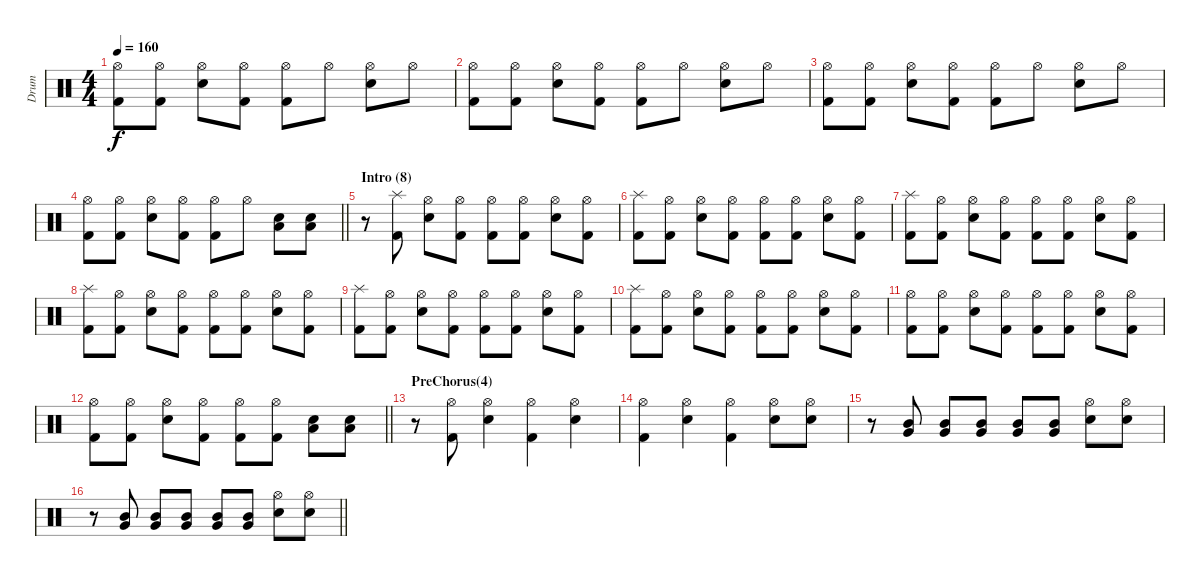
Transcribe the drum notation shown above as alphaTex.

\track ("Drum" "Drum") {instrument percussion}
\staff {score}
\articulation defaults
\ts (4 4)
\tempo 160
\clef neutral
\ks c
("Hi-Hat (open)" "Kick (hit) 2").8{dy f} ("Hi-Hat (open)" "Kick (hit) 2").8 ("Hi-Hat (open)" "Snare (hit) 2").8 ("Hi-Hat (open)" "Kick (hit) 2").8 ("Hi-Hat (open)" "Kick (hit) 2").8 "Hi-Hat (open)".8 ("Hi-Hat (open)" "Snare (hit) 2").8 "Hi-Hat (open)".8 |
("Hi-Hat (open)" "Kick (hit) 2").8 ("Hi-Hat (open)" "Kick (hit) 2").8 ("Hi-Hat (open)" "Snare (hit) 2").8 ("Hi-Hat (open)" "Kick (hit) 2").8 ("Hi-Hat (open)" "Kick (hit) 2").8 "Hi-Hat (open)".8 ("Hi-Hat (open)" "Snare (hit) 2").8 "Hi-Hat (open)".8 |
("Hi-Hat (open)" "Kick (hit) 2").8 ("Hi-Hat (open)" "Kick (hit) 2").8 ("Hi-Hat (open)" "Snare (hit) 2").8 ("Hi-Hat (open)" "Kick (hit) 2").8 ("Hi-Hat (open)" "Kick (hit) 2").8 "Hi-Hat (open)".8 ("Hi-Hat (open)" "Snare (hit) 2").8 "Hi-Hat (open)".8 |
\barLineRight lightlight
("Hi-Hat (open)" "Kick (hit) 2").8 ("Hi-Hat (open)" "Kick (hit) 2").8 ("Hi-Hat (open)" "Snare (hit) 2").8 ("Hi-Hat (open)" "Kick (hit) 2").8 ("Hi-Hat (open)" "Kick (hit) 2").8 "Hi-Hat (open)".8 ("Low Floor Tom (hit)" "Snare (hit) 2").8 ("Low Floor Tom (hit)" "Snare (hit) 2").8 |
\section ("" "Intro (8)")
r.8 ("Splash (hit)" "Kick (hit) 2").8 ("Hi-Hat (open)" "Snare (hit) 2").8 ("Hi-Hat (open)" "Kick (hit) 2").8 ("Hi-Hat (open)" "Kick (hit) 2").8 ("Hi-Hat (open)" "Kick (hit) 2").8 ("Hi-Hat (open)" "Snare (hit) 2").8 ("Hi-Hat (open)" "Kick (hit) 2").8 |
("Splash (hit)" "Kick (hit) 2").8 ("Hi-Hat (open)" "Kick (hit) 2").8 ("Hi-Hat (open)" "Snare (hit) 2").8 ("Hi-Hat (open)" "Kick (hit) 2").8 ("Hi-Hat (open)" "Kick (hit) 2").8 ("Hi-Hat (open)" "Kick (hit) 2").8 ("Hi-Hat (open)" "Snare (hit) 2").8 ("Hi-Hat (open)" "Kick (hit) 2").8 |
("Splash (hit)" "Kick (hit) 2").8 ("Hi-Hat (open)" "Kick (hit) 2").8 ("Hi-Hat (open)" "Snare (hit) 2").8 ("Hi-Hat (open)" "Kick (hit) 2").8 ("Hi-Hat (open)" "Kick (hit) 2").8 ("Hi-Hat (open)" "Kick (hit) 2").8 ("Hi-Hat (open)" "Snare (hit) 2").8 ("Hi-Hat (open)" "Kick (hit) 2").8 |
("Splash (hit)" "Kick (hit) 2").8 ("Hi-Hat (open)" "Kick (hit) 2").8 ("Hi-Hat (open)" "Snare (hit) 2").8 ("Hi-Hat (open)" "Kick (hit) 2").8 ("Hi-Hat (open)" "Kick (hit) 2").8 ("Hi-Hat (open)" "Kick (hit) 2").8 ("Hi-Hat (open)" "Snare (hit) 2").8 ("Hi-Hat (open)" "Kick (hit) 2").8 |
("Splash (hit)" "Kick (hit) 2").8 ("Hi-Hat (open)" "Kick (hit) 2").8 ("Hi-Hat (open)" "Snare (hit) 2").8 ("Hi-Hat (open)" "Kick (hit) 2").8 ("Hi-Hat (open)" "Kick (hit) 2").8 ("Hi-Hat (open)" "Kick (hit) 2").8 ("Hi-Hat (open)" "Snare (hit) 2").8 ("Hi-Hat (open)" "Kick (hit) 2").8 |
("Splash (hit)" "Kick (hit) 2").8 ("Hi-Hat (open)" "Kick (hit) 2").8 ("Hi-Hat (open)" "Snare (hit) 2").8 ("Hi-Hat (open)" "Kick (hit) 2").8 ("Hi-Hat (open)" "Kick (hit) 2").8 ("Hi-Hat (open)" "Kick (hit) 2").8 ("Hi-Hat (open)" "Snare (hit) 2").8 ("Hi-Hat (open)" "Kick (hit) 2").8 |
("Hi-Hat (open)" "Kick (hit) 2").8 ("Hi-Hat (open)" "Kick (hit) 2").8 ("Hi-Hat (open)" "Snare (hit) 2").8 ("Hi-Hat (open)" "Kick (hit) 2").8 ("Hi-Hat (open)" "Kick (hit) 2").8 ("Hi-Hat (open)" "Kick (hit) 2").8 ("Hi-Hat (open)" "Snare (hit) 2").8 ("Hi-Hat (open)" "Kick (hit) 2").8 |
\barLineRight lightlight
("Hi-Hat (open)" "Kick (hit) 2").8 ("Hi-Hat (open)" "Kick (hit) 2").8 ("Hi-Hat (open)" "Snare (hit) 2").8 ("Hi-Hat (open)" "Kick (hit) 2").8 ("Hi-Hat (open)" "Kick (hit) 2").8 ("Hi-Hat (open)" "Kick (hit) 2").8 ("Low Floor Tom (hit)" "Snare (hit) 2").8 ("Low Floor Tom (hit)" "Snare (hit) 2").8 |
\section ("" "PreChorus(4)")
r.8 ("Hi-Hat (open)" "Kick (hit) 2").8 ("Hi-Hat (open)" "Snare (hit) 2").4 ("Hi-Hat (open)" "Kick (hit) 2").4 ("Hi-Hat (open)" "Snare (hit) 2").4 |
("Hi-Hat (open)" "Kick (hit) 2").4 ("Hi-Hat (open)" "Snare (hit) 2").4 ("Hi-Hat (open)" "Kick (hit) 2").4 ("Hi-Hat (open)" "Snare (hit) 2").8 ("Hi-Hat (open)" "Snare (hit) 2").8 |
r.8 ("Mid Tom (hit)" "Very Low Tom (hit)").8 ("Mid Tom (hit)" "Very Low Tom (hit)").8 ("Mid Tom (hit)" "Very Low Tom (hit)").8 ("Mid Tom (hit)" "Very Low Tom (hit)").8 ("Mid Tom (hit)" "Very Low Tom (hit)").8 ("Hi-Hat (open)" "Snare (hit) 2").8 ("Hi-Hat (open)" "Snare (hit) 2").8 |
\barLineRight lightlight
r.8 ("Mid Tom (hit)" "Very Low Tom (hit)").8 ("Mid Tom (hit)" "Very Low Tom (hit)").8 ("Mid Tom (hit)" "Very Low Tom (hit)").8 ("Mid Tom (hit)" "Very Low Tom (hit)").8 ("Mid Tom (hit)" "Very Low Tom (hit)").8 ("Hi-Hat (open)" "Snare (hit) 2").8 ("Hi-Hat (open)" "Snare (hit) 2").8
